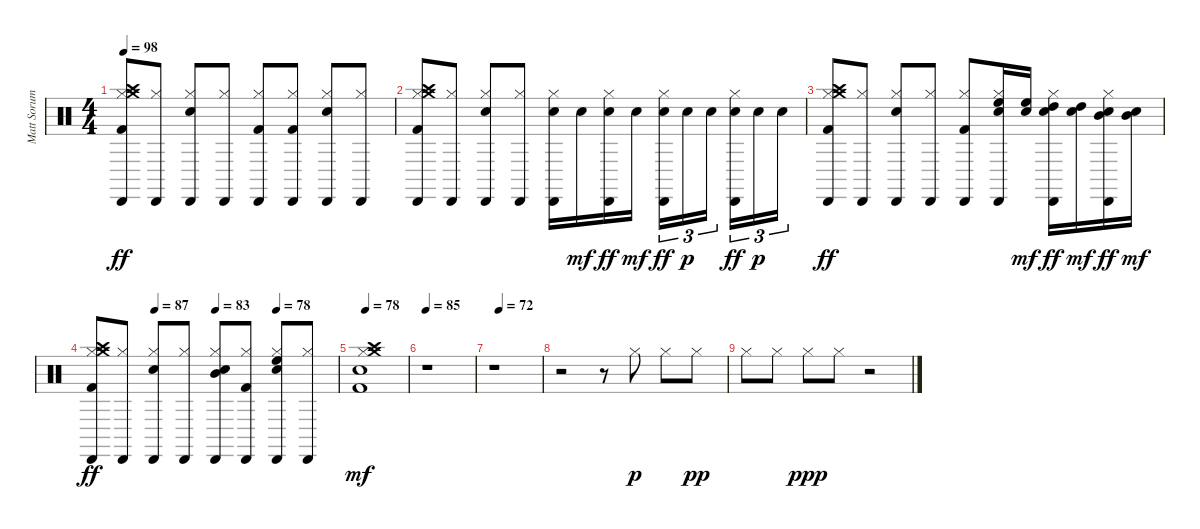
\track ("Matt Sorum" "Matt Sorum") {instrument percussion}
\staff {score}
\articulation defaults
\ts (4 4)
\tempo 98
\clef neutral
\ks c
("Kick (hit) 2" "Hi-Hat (closed)" "Cabasa (hit)" "Crash medium (hit)" "Crash high (hit)").8{dy ff} ("Hi-Hat (closed)" "Cabasa (hit)").8 ("Snare (hit) 2" "Hi-Hat (closed)" "Cabasa (hit)").8 ("Hi-Hat (closed)" "Cabasa (hit)").8 ("Kick (hit) 2" "Hi-Hat (closed)" "Cabasa (hit)").8 ("Kick (hit) 2" "Hi-Hat (closed)" "Cabasa (hit)").8 ("Snare (hit) 2" "Hi-Hat (closed)" "Cabasa (hit)").8 ("Hi-Hat (closed)" "Cabasa (hit)").8 |
("Kick (hit) 2" "Hi-Hat (closed)" "Cabasa (hit)" "Crash medium (hit)" "Crash high (hit)").8 ("Hi-Hat (closed)" "Cabasa (hit)").8 ("Snare (hit) 2" "Hi-Hat (closed)" "Cabasa (hit)").8 ("Hi-Hat (closed)" "Cabasa (hit)").8 ("Snare (hit) 2" "Hi-Hat (closed)" "Cabasa (hit)").16 "Snare (hit) 2".16{dy mf} ("Snare (hit) 2" "Hi-Hat (closed)" "Cabasa (hit)").16{dy ff} "Snare (hit) 2".16{dy mf} ("Snare (hit) 2" "Hi-Hat (closed)" "Cabasa (hit)").16{tu (3 2) dy ff} "Snare (hit) 2".16{tu (3 2) dy p} "Snare (hit) 2".16{tu (3 2)} ("Snare (hit) 2" "Hi-Hat (closed)" "Cabasa (hit)").16{tu (3 2) dy ff} "Snare (hit) 2".16{tu (3 2) dy p} "Snare (hit) 2".16{tu (3 2)} |
("Kick (hit) 2" "Hi-Hat (closed)" "Cabasa (hit)" "Crash medium (hit)" "Crash high (hit)").8{dy ff volume 16} ("Hi-Hat (closed)" "Cabasa (hit)").8 ("Snare (hit) 2" "Hi-Hat (closed)" "Cabasa (hit)").8 ("Hi-Hat (closed)" "Cabasa (hit)").8 ("Kick (hit) 2" "Hi-Hat (closed)" "Cabasa (hit)").8 ("Snare (hit) 2" "High Floor Tom (hit)" "Hi-Hat (closed)" "Cabasa (hit)").16 ("Snare (hit) 2" "High Floor Tom (hit)").16{dy mf} ("Snare (hit) 2" "High Tom (hit)" "Hi-Hat (closed)" "Cabasa (hit)").16{dy ff} ("Snare (hit) 2" "High Tom (hit)").16{dy mf} ("Snare (hit) 2" "Mid Tom (hit)" "Hi-Hat (closed)" "Cabasa (hit)").16{dy ff} ("Snare (hit) 2" "Mid Tom (hit)").16{dy mf} |
\tempo (87 0.25)
\tempo (83 0.5)
\tempo (78 0.75)
("Kick (hit) 2" "Hi-Hat (closed)" "Cabasa (hit)" "Crash medium (hit)" "Crash high (hit)").8{dy ff} ("Hi-Hat (closed)" "Cabasa (hit)").8 ("Snare (hit) 2" "Hi-Hat (closed)" "Cabasa (hit)").8 ("Hi-Hat (closed)" "Cabasa (hit)").8 ("Snare (hit) 2" "Mid Tom (hit)" "Hi-Hat (closed)" "Cabasa (hit)").8 ("Kick (hit) 2" "Hi-Hat (closed)" "Cabasa (hit)").8 ("Snare (hit) 2" "High Floor Tom (hit)" "Hi-Hat (closed)" "Cabasa (hit)").8 ("Hi-Hat (closed)" "Cabasa (hit)").8 |
\tempo 78
("Kick (hit) 2" "Snare (hit) 2" "Hi-Hat (closed)" "Crash medium (hit)" "Crash high (hit)").1{dy mf} |
\tempo 85
r.1 |
\tempo (72 0.125)
r.1 |
r.2 r.8 "Hi-Hat (closed)".8{dy p} "Hi-Hat (closed)".8 "Hi-Hat (closed)".8{dy pp} |
"Hi-Hat (closed)".8 "Hi-Hat (closed)".8 "Hi-Hat (closed)".8{dy ppp} "Hi-Hat (closed)".8 r.2
